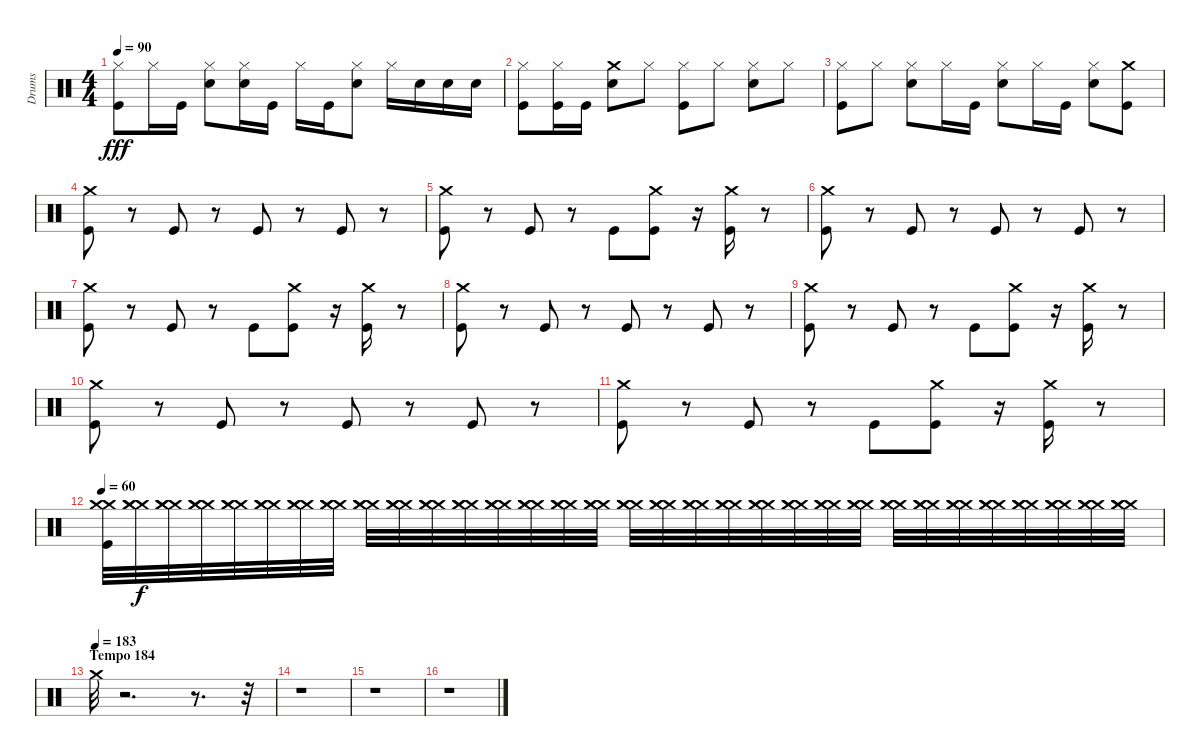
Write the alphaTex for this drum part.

\track ("Drums" "Drums") {instrument percussion}
\staff {score}
\articulation defaults
\ts (4 4)
\tempo 90
\clef neutral
\ks c
("Kick (hit)" "Hi-Hat (closed)").8{dy fff} "Hi-Hat (closed)".16 "Kick (hit)".16 ("Snare (hit) 2" "Hi-Hat (closed)").8 ("Snare (hit) 2" "Hi-Hat (closed)").16 "Kick (hit)".16 "Hi-Hat (closed)".16 "Kick (hit)".16 ("Snare (hit) 2" "Hi-Hat (closed)").8 "Hi-Hat (closed)".16 "Snare (hit) 2".16 "Snare (hit) 2".16 "Snare (hit) 2".16 |
("Hi-Hat (closed)" "Kick (hit)").8 ("Hi-Hat (closed)" "Kick (hit)").16 "Kick (hit)".16 ("Crash medium (hit)" "Snare (hit) 2").8 "Hi-Hat (closed)".8 ("Hi-Hat (closed)" "Kick (hit)").8 "Hi-Hat (closed)".8 ("Snare (hit) 2" "Hi-Hat (closed)").8 "Hi-Hat (closed)".8 |
("Hi-Hat (closed)" "Kick (hit)").8 "Hi-Hat (closed)".8 ("Snare (hit) 2" "Hi-Hat (closed)").8 "Hi-Hat (closed)".16 "Kick (hit)".16 ("Hi-Hat (closed)" "Snare (hit) 2").8 "Hi-Hat (closed)".16 "Kick (hit)".16 ("Hi-Hat (closed)" "Snare (hit) 2").8 ("Crash medium (hit)" "Kick (hit)").8 |
("Crash medium (hit)" "Kick (hit)").8 r.8 "Kick (hit)".8 r.8 "Kick (hit)".8 r.8 "Kick (hit)".8 r.8 |
("Crash medium (hit)" "Kick (hit)").8 r.8 "Kick (hit)".8 r.8 "Kick (hit)".8 ("Crash medium (hit)" "Kick (hit)").8 r.16 ("Crash medium (hit)" "Kick (hit)").16 r.8 |
("Crash medium (hit)" "Kick (hit)").8 r.8 "Kick (hit)".8 r.8 "Kick (hit)".8 r.8 "Kick (hit)".8 r.8 |
("Crash medium (hit)" "Kick (hit)").8 r.8 "Kick (hit)".8 r.8 "Kick (hit)".8 ("Crash medium (hit)" "Kick (hit)").8 r.16 ("Crash medium (hit)" "Kick (hit)").16 r.8 |
("Crash medium (hit)" "Kick (hit)").8 r.8 "Kick (hit)".8 r.8 "Kick (hit)".8 r.8 "Kick (hit)".8 r.8 |
("Crash medium (hit)" "Kick (hit)").8 r.8 "Kick (hit)".8 r.8 "Kick (hit)".8 ("Crash medium (hit)" "Kick (hit)").8 r.16 ("Crash medium (hit)" "Kick (hit)").16 r.8 |
("Crash medium (hit)" "Kick (hit)").8 r.8 "Kick (hit)".8 r.8 "Kick (hit)".8 r.8 "Kick (hit)".8 r.8 |
("Crash medium (hit)" "Kick (hit)").8 r.8 "Kick (hit)".8 r.8 "Kick (hit)".8 ("Crash medium (hit)" "Kick (hit)").8 r.16 ("Crash medium (hit)" "Kick (hit)").16 r.8 |
\tempo 60
("Kick (hit)" "Crash medium (hit)" "Crash medium (hit)").32 ("Crash medium (hit)" "Crash medium (hit)" "Crash medium (hit)").32{dy f} ("Crash medium (hit)" "Crash medium (hit)" "Crash medium (hit)").32 ("Crash medium (hit)" "Crash medium (hit)" "Crash medium (hit)").32 ("Crash medium (hit)" "Crash medium (hit)" "Crash medium (hit)").32 ("Crash medium (hit)" "Crash medium (hit)" "Crash medium (hit)").32 ("Crash medium (hit)" "Crash medium (hit)" "Crash medium (hit)").32 ("Crash medium (hit)" "Crash medium (hit)" "Crash medium (hit)").32 ("Crash medium (hit)" "Crash medium (hit)" "Crash medium (hit)").32 ("Crash medium (hit)" "Crash medium (hit)" "Crash medium (hit)").32 ("Crash medium (hit)" "Crash medium (hit)" "Crash medium (hit)").32 ("Crash medium (hit)" "Crash medium (hit)" "Crash medium (hit)").32 ("Crash medium (hit)" "Crash medium (hit)" "Crash medium (hit)").32 ("Crash medium (hit)" "Crash medium (hit)" "Crash medium (hit)").32 ("Crash medium (hit)" "Crash medium (hit)" "Crash medium (hit)").32 ("Crash medium (hit)" "Crash medium (hit)" "Crash medium (hit)").32 ("Crash medium (hit)" "Crash medium (hit)" "Crash medium (hit)").32 ("Crash medium (hit)" "Crash medium (hit)" "Crash medium (hit)").32 ("Crash medium (hit)" "Crash medium (hit)" "Crash medium (hit)").32 ("Crash medium (hit)" "Crash medium (hit)" "Crash medium (hit)").32 ("Crash medium (hit)" "Crash medium (hit)" "Crash medium (hit)").32 ("Crash medium (hit)" "Crash medium (hit)" "Crash medium (hit)").32 ("Crash medium (hit)" "Crash medium (hit)" "Crash medium (hit)").32 ("Crash medium (hit)" "Crash medium (hit)" "Crash medium (hit)").32 ("Crash medium (hit)" "Crash medium (hit)" "Crash medium (hit)").32 ("Crash medium (hit)" "Crash medium (hit)" "Crash medium (hit)").32 ("Crash medium (hit)" "Crash medium (hit)" "Crash medium (hit)").32 ("Crash medium (hit)" "Crash medium (hit)" "Crash medium (hit)").32 ("Crash medium (hit)" "Crash medium (hit)" "Crash medium (hit)").32 ("Crash medium (hit)" "Crash medium (hit)" "Crash medium (hit)").32 ("Crash medium (hit)" "Crash medium (hit)" "Crash medium (hit)").32 ("Crash medium (hit)" "Crash medium (hit)" "Crash medium (hit)").32 |
\section ("" "Tempo 184")
\tempo (183)
"Crash medium (hit)".32 r.2{d} r.8{d} r.32 |
r.1 |
r.1 |
r.1
